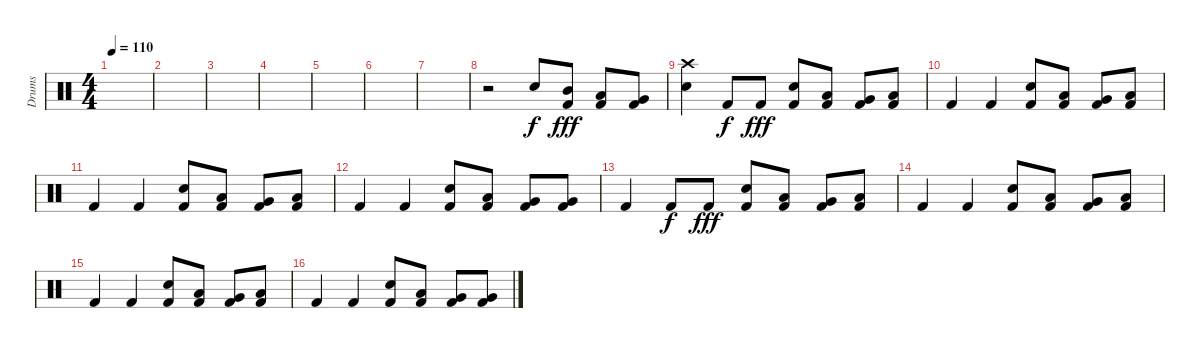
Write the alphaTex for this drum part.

\track ("Drums" "Drums") {instrument percussion}
\staff {score}
\articulation defaults
\ts (4 4)
\tempo 110
\clef neutral
\ks c
|
|
|
|
|
|
|
r.2 "Electric Snare (hit)".8{dy f} ("Mid Tom (hit)" "Kick (hit) 2").8{dy fff} ("Low Tom (hit)" "Kick (hit) 2").8 ("Very Low Tom (hit)" "Kick (hit) 2").8 |
("Crash high (hit)" "Electric Snare (hit)").4 "Kick (hit) 2".8{dy f} "Kick (hit) 2".8{dy fff} ("Electric Snare (hit)" "Kick (hit) 2").8 ("Low Tom (hit)" "Kick (hit) 2").8 ("Very Low Tom (hit)" "Kick (hit) 2").8 ("Low Tom (hit)" "Kick (hit) 2").8 |
"Kick (hit) 2".4 "Kick (hit) 2".4 ("Electric Snare (hit)" "Kick (hit) 2").8 ("Low Tom (hit)" "Kick (hit) 2").8 ("Very Low Tom (hit)" "Kick (hit) 2").8 ("Low Tom (hit)" "Kick (hit) 2").8 |
"Kick (hit) 2".4 "Kick (hit) 2".4 ("Electric Snare (hit)" "Kick (hit) 2").8 ("Low Tom (hit)" "Kick (hit) 2").8 ("Very Low Tom (hit)" "Kick (hit) 2").8 ("Low Tom (hit)" "Kick (hit) 2").8 |
"Kick (hit) 2".4 "Kick (hit) 2".4 ("Electric Snare (hit)" "Kick (hit) 2").8 ("Low Tom (hit)" "Kick (hit) 2").8 ("Very Low Tom (hit)" "Kick (hit) 2").8 ("Very Low Tom (hit)" "Kick (hit) 2").8 |
"Kick (hit) 2".4 "Kick (hit) 2".8{dy f} "Kick (hit) 2".8{dy fff} ("Electric Snare (hit)" "Kick (hit) 2").8 ("Low Tom (hit)" "Kick (hit) 2").8 ("Very Low Tom (hit)" "Kick (hit) 2").8 ("Low Tom (hit)" "Kick (hit) 2").8 |
"Kick (hit) 2".4 "Kick (hit) 2".4 ("Electric Snare (hit)" "Kick (hit) 2").8 ("Low Tom (hit)" "Kick (hit) 2").8 ("Very Low Tom (hit)" "Kick (hit) 2").8 ("Low Tom (hit)" "Kick (hit) 2").8 |
"Kick (hit) 2".4 "Kick (hit) 2".4 ("Electric Snare (hit)" "Kick (hit) 2").8 ("Low Tom (hit)" "Kick (hit) 2").8 ("Very Low Tom (hit)" "Kick (hit) 2").8 ("Low Tom (hit)" "Kick (hit) 2").8 |
"Kick (hit) 2".4 "Kick (hit) 2".4 ("Electric Snare (hit)" "Kick (hit) 2").8 ("Low Tom (hit)" "Kick (hit) 2").8 ("Very Low Tom (hit)" "Kick (hit) 2").8 ("Very Low Tom (hit)" "Kick (hit) 2").8
